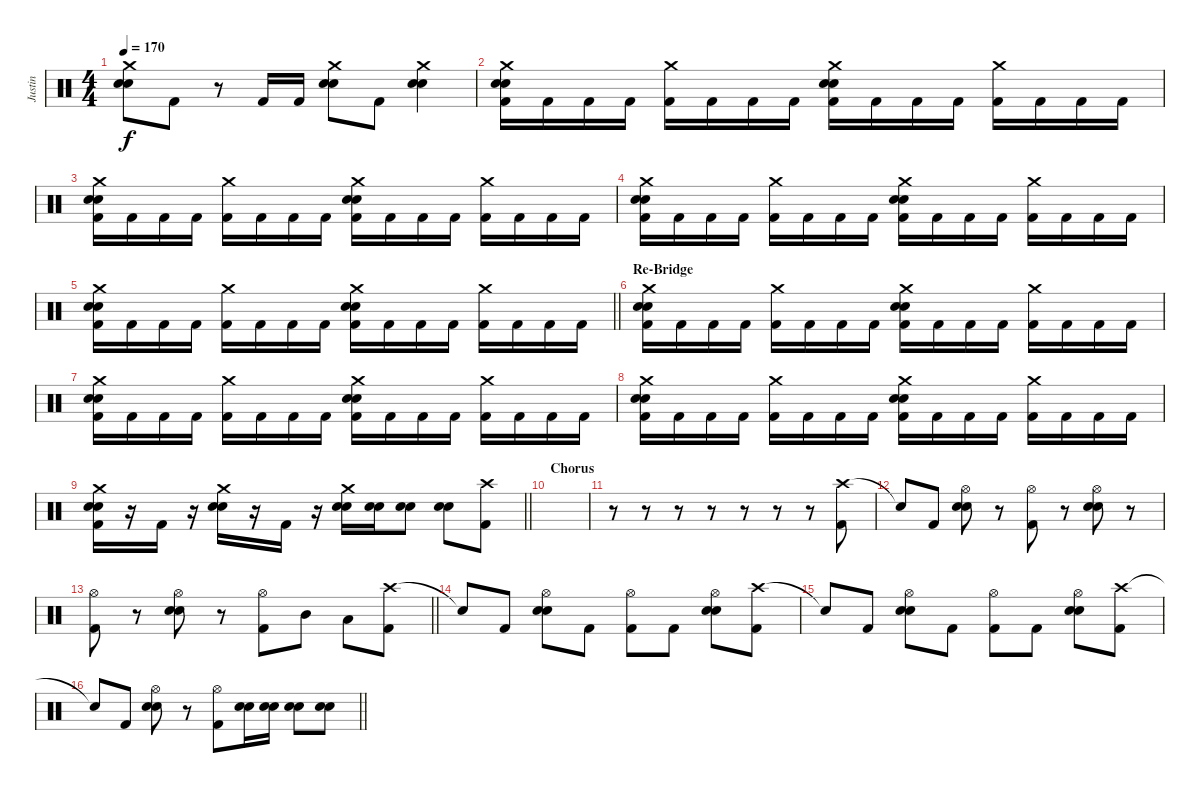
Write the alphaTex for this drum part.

\track ("Justin" "Justin") {instrument percussion}
\staff {score}
\articulation defaults
\ts (4 4)
\tempo 170
\clef neutral
\ks c
("Crash medium (hit)" "Electric Snare (hit)" "Snare (hit) 2").8{dy f} "Kick (hit) 2".8 r.8 "Kick (hit) 2".16 "Kick (hit) 2".16 ("Crash medium (hit)" "Electric Snare (hit)" "Snare (hit) 2").8 "Kick (hit) 2".8 ("Crash medium (hit)" "Electric Snare (hit)" "Snare (hit) 2").4 |
("Crash medium (hit)" "Electric Snare (hit)" "Snare (hit) 2" "Kick (hit) 2").16 "Kick (hit) 2".16 "Kick (hit) 2".16 "Kick (hit) 2".16 ("Crash medium (hit)" "Kick (hit) 2").16 "Kick (hit) 2".16 "Kick (hit) 2".16 "Kick (hit) 2".16 ("Crash medium (hit)" "Electric Snare (hit)" "Snare (hit) 2" "Kick (hit) 2").16 "Kick (hit) 2".16 "Kick (hit) 2".16 "Kick (hit) 2".16 ("Crash medium (hit)" "Kick (hit) 2").16 "Kick (hit) 2".16 "Kick (hit) 2".16 "Kick (hit) 2".16 |
("Crash medium (hit)" "Electric Snare (hit)" "Snare (hit) 2" "Kick (hit) 2").16 "Kick (hit) 2".16 "Kick (hit) 2".16 "Kick (hit) 2".16 ("Crash medium (hit)" "Kick (hit) 2").16 "Kick (hit) 2".16 "Kick (hit) 2".16 "Kick (hit) 2".16 ("Crash medium (hit)" "Electric Snare (hit)" "Snare (hit) 2" "Kick (hit) 2").16 "Kick (hit) 2".16 "Kick (hit) 2".16 "Kick (hit) 2".16 ("Crash medium (hit)" "Kick (hit) 2").16 "Kick (hit) 2".16 "Kick (hit) 2".16 "Kick (hit) 2".16 |
("Crash medium (hit)" "Electric Snare (hit)" "Snare (hit) 2" "Kick (hit) 2").16 "Kick (hit) 2".16 "Kick (hit) 2".16 "Kick (hit) 2".16 ("Crash medium (hit)" "Kick (hit) 2").16 "Kick (hit) 2".16 "Kick (hit) 2".16 "Kick (hit) 2".16 ("Crash medium (hit)" "Electric Snare (hit)" "Snare (hit) 2" "Kick (hit) 2").16 "Kick (hit) 2".16 "Kick (hit) 2".16 "Kick (hit) 2".16 ("Crash medium (hit)" "Kick (hit) 2").16 "Kick (hit) 2".16 "Kick (hit) 2".16 "Kick (hit) 2".16 |
\barLineRight lightlight
("Crash medium (hit)" "Electric Snare (hit)" "Snare (hit) 2" "Kick (hit) 2").16 "Kick (hit) 2".16 "Kick (hit) 2".16 "Kick (hit) 2".16 ("Crash medium (hit)" "Kick (hit) 2").16 "Kick (hit) 2".16 "Kick (hit) 2".16 "Kick (hit) 2".16 ("Crash medium (hit)" "Electric Snare (hit)" "Snare (hit) 2" "Kick (hit) 2").16 "Kick (hit) 2".16 "Kick (hit) 2".16 "Kick (hit) 2".16 ("Crash medium (hit)" "Kick (hit) 2").16 "Kick (hit) 2".16 "Kick (hit) 2".16 "Kick (hit) 2".16 |
\section ("" "Re-Bridge")
("Crash medium (hit)" "Electric Snare (hit)" "Snare (hit) 2" "Kick (hit) 2").16 "Kick (hit) 2".16 "Kick (hit) 2".16 "Kick (hit) 2".16 ("Crash medium (hit)" "Kick (hit) 2").16 "Kick (hit) 2".16 "Kick (hit) 2".16 "Kick (hit) 2".16 ("Crash medium (hit)" "Electric Snare (hit)" "Snare (hit) 2" "Kick (hit) 2").16 "Kick (hit) 2".16 "Kick (hit) 2".16 "Kick (hit) 2".16 ("Crash medium (hit)" "Kick (hit) 2").16 "Kick (hit) 2".16 "Kick (hit) 2".16 "Kick (hit) 2".16 |
("Crash medium (hit)" "Electric Snare (hit)" "Snare (hit) 2" "Kick (hit) 2").16 "Kick (hit) 2".16 "Kick (hit) 2".16 "Kick (hit) 2".16 ("Crash medium (hit)" "Kick (hit) 2").16 "Kick (hit) 2".16 "Kick (hit) 2".16 "Kick (hit) 2".16 ("Crash medium (hit)" "Electric Snare (hit)" "Snare (hit) 2" "Kick (hit) 2").16 "Kick (hit) 2".16 "Kick (hit) 2".16 "Kick (hit) 2".16 ("Crash medium (hit)" "Kick (hit) 2").16 "Kick (hit) 2".16 "Kick (hit) 2".16 "Kick (hit) 2".16 |
("Crash medium (hit)" "Electric Snare (hit)" "Snare (hit) 2" "Kick (hit) 2").16 "Kick (hit) 2".16 "Kick (hit) 2".16 "Kick (hit) 2".16 ("Crash medium (hit)" "Kick (hit) 2").16 "Kick (hit) 2".16 "Kick (hit) 2".16 "Kick (hit) 2".16 ("Crash medium (hit)" "Electric Snare (hit)" "Snare (hit) 2" "Kick (hit) 2").16 "Kick (hit) 2".16 "Kick (hit) 2".16 "Kick (hit) 2".16 ("Crash medium (hit)" "Kick (hit) 2").16 "Kick (hit) 2".16 "Kick (hit) 2".16 "Kick (hit) 2".16 |
\barLineRight lightlight
("Crash medium (hit)" "Electric Snare (hit)" "Snare (hit) 2" "Kick (hit) 2").16 r.16 "Kick (hit) 2".16 r.16 ("Crash medium (hit)" "Electric Snare (hit)" "Snare (hit) 2").16 r.16 "Kick (hit) 2".16 r.16 ("Crash medium (hit)" "Electric Snare (hit)" "Snare (hit) 2").16 ("Electric Snare (hit)" "Snare (hit) 2").16 ("Electric Snare (hit)" "Snare (hit) 2").8 ("Electric Snare (hit)" "Snare (hit) 2").8 ("Crash high (hit)" "Kick (hit) 2").8 |
\section ("" "Chorus")
|
r.8 r.8 r.8 r.8 r.8 r.8 r.8 ("Crash high (hit)" "Kick (hit) 2").8 |
"Snare (hit)"{t}.8 "Kick (hit) 2".8 ("Hi-Hat (open)" "Electric Snare (hit)" "Snare (hit) 2").8 r.8 ("Hi-Hat (open)" "Kick (hit) 2").8 r.8 ("Hi-Hat (open)" "Electric Snare (hit)" "Snare (hit) 2").8 r.8 |
\barLineRight lightlight
("Hi-Hat (open)" "Kick (hit) 2").8 r.8 ("Hi-Hat (open)" "Electric Snare (hit)" "Snare (hit) 2").8 r.8 ("Hi-Hat (open)" "Kick (hit) 2").8 "Mid Tom (hit)".8 "Low Tom (hit)".8 ("Crash high (hit)" "Kick (hit) 2").8 |
"Snare (hit)"{t}.8 "Kick (hit) 2".8 ("Hi-Hat (open)" "Electric Snare (hit)" "Snare (hit) 2").8 "Kick (hit) 2".8 ("Hi-Hat (open)" "Kick (hit) 2").8 "Kick (hit) 2".8 ("Hi-Hat (open)" "Electric Snare (hit)" "Snare (hit) 2").8 ("Crash high (hit)" "Kick (hit) 2").8 |
"Snare (hit)"{t}.8 "Kick (hit) 2".8 ("Hi-Hat (open)" "Electric Snare (hit)" "Snare (hit) 2").8 "Kick (hit) 2".8 ("Hi-Hat (open)" "Kick (hit) 2").8 "Kick (hit) 2".8 ("Hi-Hat (open)" "Electric Snare (hit)" "Snare (hit) 2").8 ("Crash high (hit)" "Kick (hit) 2").8 |
\barLineRight lightlight "Snare (hit)"{t}.8 "Kick (hit) 2".8
("Hi-Hat (open)" "Electric Snare (hit)" "Snare (hit) 2").8 r.8 ("Hi-Hat (open)" "Kick (hit) 2").8 ("Electric Snare (hit)" "Snare (hit) 2").16 ("Electric Snare (hit)" "Snare (hit) 2").16 ("Electric Snare (hit)" "Snare (hit) 2").8 ("Electric Snare (hit)" "Snare (hit) 2").8
